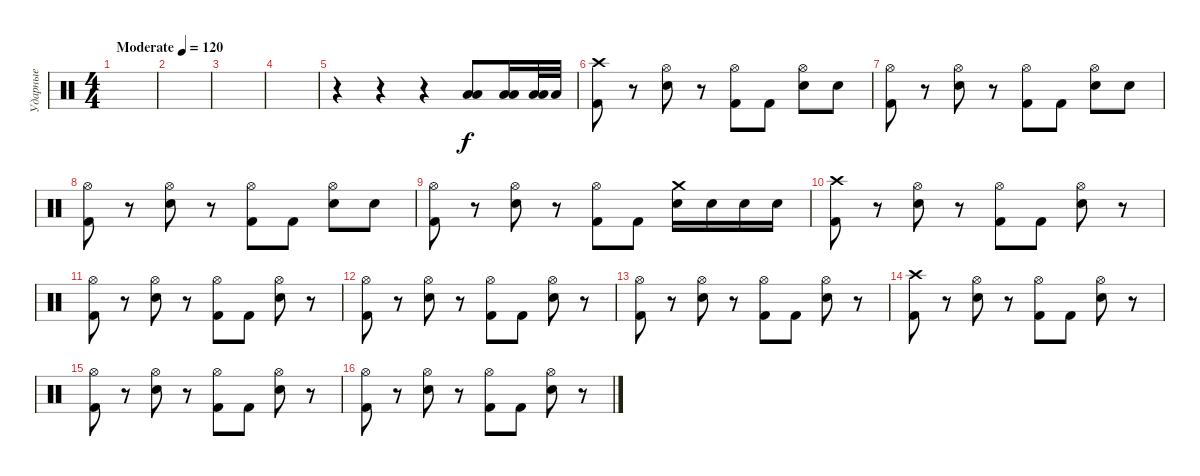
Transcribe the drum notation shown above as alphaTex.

\track ("Ударные" "Ударные") {instrument percussion}
\staff {score}
\articulation defaults
\ts (4 4)
\tempo (120 "Moderate")
\clef neutral
\ks c
|
|
|
|
r.4 r.4 r.4 ("Low Tom (hit)" "Low Floor Tom (hit)").8 ("Low Tom (hit)" "Low Floor Tom (hit)").16 ("Low Tom (hit)" "Low Floor Tom (hit)").32 "Low Tom (hit)".32 |
("Crash high (hit)" "Kick (hit) 2").8 r.8 ("Hi-Hat (open)" "Electric Snare (hit)").8 r.8 ("Hi-Hat (open)" "Kick (hit) 2").8 "Kick (hit) 2".8 ("Hi-Hat (open)" "Electric Snare (hit)").8 "Electric Snare (hit)".8 |
("Hi-Hat (open)" "Kick (hit) 2").8 r.8 ("Hi-Hat (open)" "Electric Snare (hit)").8 r.8 ("Hi-Hat (open)" "Kick (hit) 2").8 "Kick (hit) 2".8 ("Hi-Hat (open)" "Electric Snare (hit)").8 "Electric Snare (hit)".8 |
("Hi-Hat (open)" "Kick (hit) 2").8 r.8 ("Hi-Hat (open)" "Electric Snare (hit)").8 r.8 ("Hi-Hat (open)" "Kick (hit) 2").8 "Kick (hit) 2".8 ("Hi-Hat (open)" "Electric Snare (hit)").8 "Electric Snare (hit)".8 |
("Hi-Hat (open)" "Kick (hit) 2").8 r.8 ("Hi-Hat (open)" "Electric Snare (hit)").8 r.8 ("Hi-Hat (open)" "Kick (hit) 2").8 "Kick (hit) 2".8 ("Crash medium (hit)" "Electric Snare (hit)").16 "Electric Snare (hit)".16 "Electric Snare (hit)".16 "Electric Snare (hit)".16 |
("Crash high (hit)" "Kick (hit) 2").8 r.8 ("Hi-Hat (open)" "Electric Snare (hit)").8 r.8 ("Hi-Hat (open)" "Kick (hit) 2").8 "Kick (hit) 2".8 ("Hi-Hat (open)" "Electric Snare (hit)").8 r.8 |
("Hi-Hat (open)" "Kick (hit) 2").8 r.8 ("Hi-Hat (open)" "Electric Snare (hit)").8 r.8 ("Hi-Hat (open)" "Kick (hit) 2").8 "Kick (hit) 2".8 ("Hi-Hat (open)" "Electric Snare (hit)").8 r.8 |
("Hi-Hat (open)" "Kick (hit) 2").8 r.8 ("Hi-Hat (open)" "Electric Snare (hit)").8 r.8 ("Hi-Hat (open)" "Kick (hit) 2").8 "Kick (hit) 2".8 ("Hi-Hat (open)" "Electric Snare (hit)").8 r.8 |
("Hi-Hat (open)" "Kick (hit) 2").8 r.8 ("Hi-Hat (open)" "Electric Snare (hit)").8 r.8 ("Hi-Hat (open)" "Kick (hit) 2").8 "Kick (hit) 2".8 ("Hi-Hat (open)" "Electric Snare (hit)").8 r.8 |
("Crash high (hit)" "Kick (hit) 2").8 r.8 ("Hi-Hat (open)" "Electric Snare (hit)").8 r.8 ("Hi-Hat (open)" "Kick (hit) 2").8 "Kick (hit) 2".8 ("Hi-Hat (open)" "Electric Snare (hit)").8 r.8 |
("Hi-Hat (open)" "Kick (hit) 2").8 r.8 ("Hi-Hat (open)" "Electric Snare (hit)").8 r.8 ("Hi-Hat (open)" "Kick (hit) 2").8 "Kick (hit) 2".8 ("Hi-Hat (open)" "Electric Snare (hit)").8 r.8 |
("Hi-Hat (open)" "Kick (hit) 2").8 r.8 ("Hi-Hat (open)" "Electric Snare (hit)").8 r.8 ("Hi-Hat (open)" "Kick (hit) 2").8 "Kick (hit) 2".8 ("Hi-Hat (open)" "Electric Snare (hit)").8 r.8
